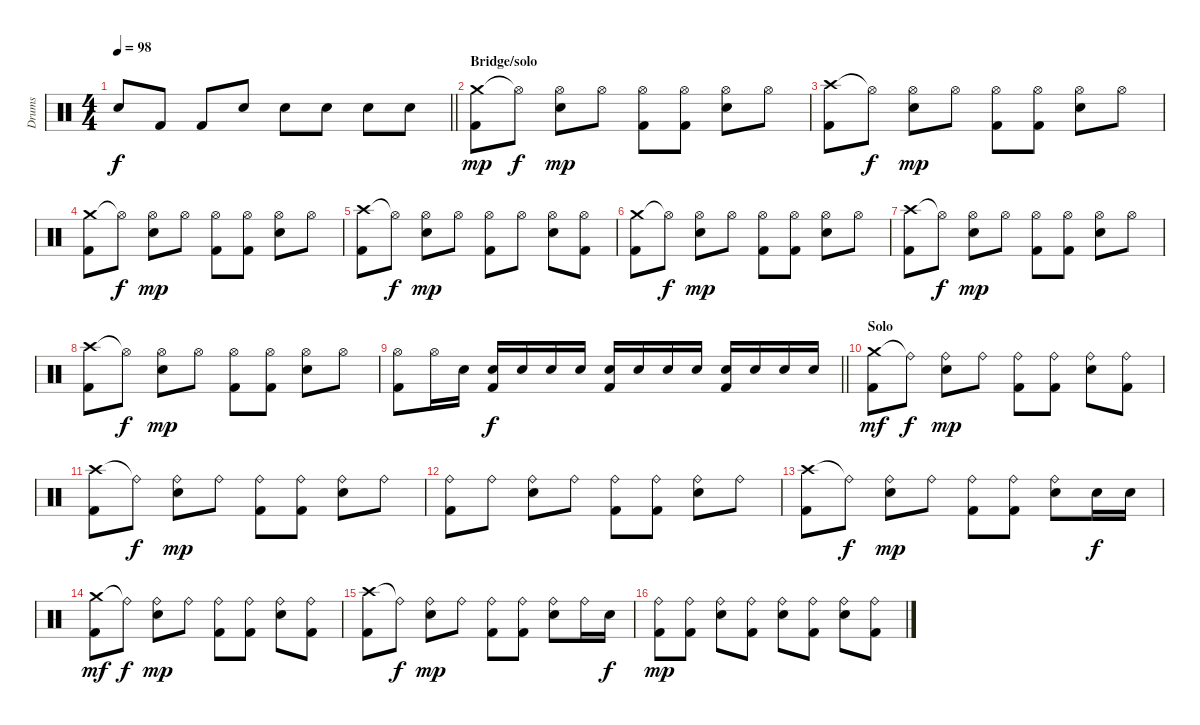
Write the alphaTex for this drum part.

\track ("Drums" "Drums") {instrument percussion}
\staff {score}
\articulation defaults
\ts (4 4)
\tempo 98
\clef neutral
\barLineRight lightlight
\ks c "Electric Snare (hit)".8{dy f} "Kick (hit) 2".8 "Kick (hit) 2".8 "Electric Snare (hit)".8 "Electric Snare (hit)".8 "Electric Snare (hit)".8 "Electric Snare (hit)".8 "Electric Snare (hit)".8
|
\section ("" "Bridge/solo")
("Crash medium (hit)" "Kick (hit) 2").8{dy mp} "Hi-Hat (open)"{t}.8{dy f} ("Hi-Hat (open)" "Electric Snare (hit)").8{dy mp} "Hi-Hat (open)".8 ("Hi-Hat (open)" "Kick (hit) 2").8 ("Hi-Hat (open)" "Kick (hit) 2").8 ("Hi-Hat (open)" "Electric Snare (hit)").8 "Hi-Hat (open)".8 |
("Crash high (hit)" "Kick (hit) 2").8 "Hi-Hat (open)"{t}.8{dy f} ("Hi-Hat (open)" "Electric Snare (hit)").8{dy mp} "Hi-Hat (open)".8 ("Hi-Hat (open)" "Kick (hit) 2").8 ("Hi-Hat (open)" "Kick (hit) 2").8 ("Hi-Hat (open)" "Electric Snare (hit)").8 "Hi-Hat (open)".8 |
("Crash medium (hit)" "Kick (hit) 2").8 "Hi-Hat (open)"{t}.8{dy f} ("Hi-Hat (open)" "Electric Snare (hit)").8{dy mp} "Hi-Hat (open)".8 ("Hi-Hat (open)" "Kick (hit) 2").8 ("Hi-Hat (open)" "Kick (hit) 2").8 ("Hi-Hat (open)" "Electric Snare (hit)").8 "Hi-Hat (open)".8 |
("Crash high (hit)" "Kick (hit) 2").8 "Hi-Hat (open)"{t}.8{dy f} ("Hi-Hat (open)" "Electric Snare (hit)").8{dy mp} "Hi-Hat (open)".8 ("Hi-Hat (open)" "Kick (hit) 2").8 "Hi-Hat (open)".8 ("Hi-Hat (open)" "Electric Snare (hit)").8 ("Hi-Hat (open)" "Kick (hit) 2").8 |
("Crash medium (hit)" "Kick (hit) 2").8 "Hi-Hat (open)"{t}.8{dy f} ("Hi-Hat (open)" "Electric Snare (hit)").8{dy mp} "Hi-Hat (open)".8 ("Hi-Hat (open)" "Kick (hit) 2").8 ("Hi-Hat (open)" "Kick (hit) 2").8 ("Hi-Hat (open)" "Electric Snare (hit)").8 "Hi-Hat (open)".8 |
("Crash high (hit)" "Kick (hit) 2").8 "Hi-Hat (open)"{t}.8{dy f} ("Hi-Hat (open)" "Electric Snare (hit)").8{dy mp} "Hi-Hat (open)".8 ("Hi-Hat (open)" "Kick (hit) 2").8 ("Hi-Hat (open)" "Kick (hit) 2").8 ("Hi-Hat (open)" "Electric Snare (hit)").8 "Hi-Hat (open)".8 |
("Crash high (hit)" "Kick (hit) 2").8 "Hi-Hat (open)"{t}.8{dy f} ("Hi-Hat (open)" "Electric Snare (hit)").8{dy mp} "Hi-Hat (open)".8 ("Hi-Hat (open)" "Kick (hit) 2").8 ("Hi-Hat (open)" "Kick (hit) 2").8 ("Hi-Hat (open)" "Electric Snare (hit)").8 "Hi-Hat (open)".8 |
\barLineRight lightlight
("Hi-Hat (open)" "Kick (hit) 2").8 "Hi-Hat (open)".16 "Electric Snare (hit)".16 ("Electric Snare (hit)" "Kick (hit) 2").16{dy f} "Electric Snare (hit)".16 "Electric Snare (hit)".16 "Electric Snare (hit)".16 ("Electric Snare (hit)" "Kick (hit) 2").16 "Electric Snare (hit)".16 "Electric Snare (hit)".16 "Electric Snare (hit)".16 ("Electric Snare (hit)" "Kick (hit) 2").16 "Electric Snare (hit)".16 "Electric Snare (hit)".16 "Electric Snare (hit)".16 |
\section ("" "Solo")
("Crash medium (hit)" "Kick (hit) 2").8{dy mf} "Ride (bell)"{t}.8{dy f} ("Ride (bell)" "Electric Snare (hit)").8{dy mp} "Ride (bell)".8 ("Ride (bell)" "Kick (hit) 2").8 ("Ride (bell)" "Kick (hit) 2").8 ("Ride (bell)" "Electric Snare (hit)").8 ("Ride (bell)" "Kick (hit) 2").8 |
("Crash high (hit)" "Kick (hit) 2").8 "Ride (bell)"{t}.8{dy f} ("Ride (bell)" "Electric Snare (hit)").8{dy mp} "Ride (bell)".8 ("Ride (bell)" "Kick (hit) 2").8 ("Ride (bell)" "Kick (hit) 2").8 ("Ride (bell)" "Electric Snare (hit)").8 "Ride (bell)".8 |
("Ride (bell)" "Kick (hit) 2").8 "Ride (bell)".8 ("Ride (bell)" "Electric Snare (hit)").8 "Ride (bell)".8 ("Ride (bell)" "Kick (hit) 2").8 ("Ride (bell)" "Kick (hit) 2").8 ("Ride (bell)" "Electric Snare (hit)").8 "Ride (bell)".8 |
("Crash high (hit)" "Kick (hit) 2").8 "Ride (bell)"{t}.8{dy f} ("Ride (bell)" "Electric Snare (hit)").8{dy mp} "Ride (bell)".8 ("Ride (bell)" "Kick (hit) 2").8 ("Ride (bell)" "Kick (hit) 2").8 ("Ride (bell)" "Electric Snare (hit)").8 "Electric Snare (hit)".16{dy f} "Electric Snare (hit)".16 |
("Crash medium (hit)" "Kick (hit) 2").8{dy mf} "Ride (bell)"{t}.8{dy f} ("Ride (bell)" "Electric Snare (hit)").8{dy mp} "Ride (bell)".8 ("Ride (bell)" "Kick (hit) 2").8 ("Ride (bell)" "Kick (hit) 2").8 ("Ride (bell)" "Electric Snare (hit)").8 ("Ride (bell)" "Kick (hit) 2").8 |
("Crash high (hit)" "Kick (hit) 2").8 "Ride (bell)"{t}.8{dy f} ("Ride (bell)" "Electric Snare (hit)").8{dy mp} "Ride (bell)".8 ("Ride (bell)" "Kick (hit) 2").8 ("Ride (bell)" "Kick (hit) 2").8 ("Ride (bell)" "Electric Snare (hit)").8 "Ride (bell)".16 "Electric Snare (hit)".16{dy f} |
("Ride (bell)" "Kick (hit) 2").8{dy mp} ("Ride (bell)" "Kick (hit) 2").8 ("Ride (bell)" "Electric Snare (hit)").8 ("Ride (bell)" "Kick (hit) 2").8 ("Ride (bell)" "Electric Snare (hit)").8 ("Ride (bell)" "Kick (hit) 2").8 ("Ride (bell)" "Electric Snare (hit)").8 ("Ride (bell)" "Kick (hit) 2").8
